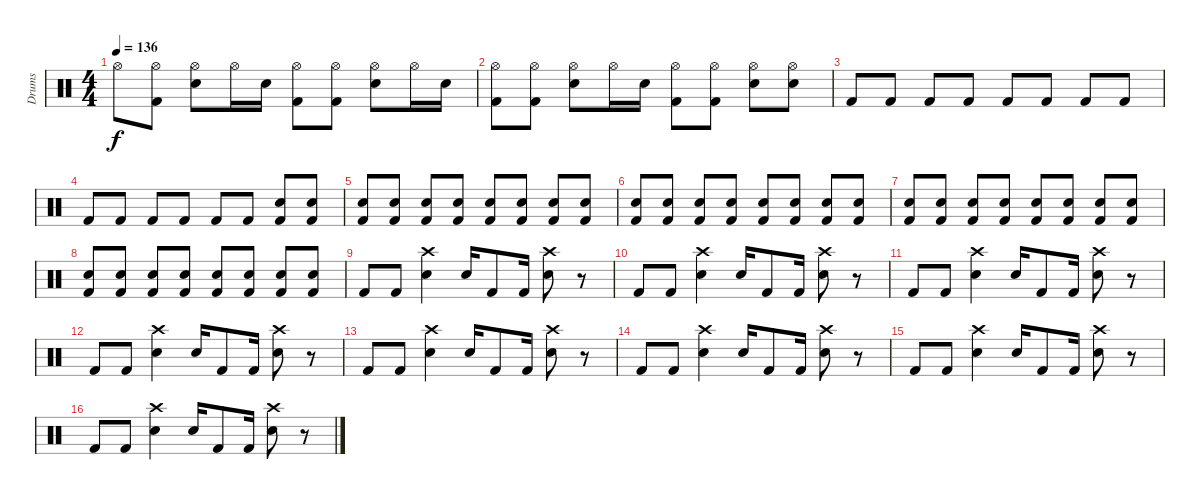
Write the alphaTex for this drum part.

\track ("Drums" "Drums") {instrument percussion}
\staff {score}
\articulation defaults
\ts (4 4)
\tempo 136
\clef neutral
\ks c "Hi-Hat (open)".8{dy f}
("Hi-Hat (open)" "Kick (hit) 2").8 ("Hi-Hat (open)" "Snare (hit) 2").8 "Hi-Hat (open)".16 "Snare (hit) 2".16 ("Hi-Hat (open)" "Kick (hit) 2").8 ("Hi-Hat (open)" "Kick (hit) 2").8 ("Hi-Hat (open)" "Snare (hit) 2").8 "Hi-Hat (open)".16 "Snare (hit) 2".16 |
("Hi-Hat (open)" "Kick (hit) 2").8 ("Hi-Hat (open)" "Kick (hit) 2").8 ("Hi-Hat (open)" "Snare (hit) 2").8 "Hi-Hat (open)".16 "Snare (hit) 2".16 ("Hi-Hat (open)" "Kick (hit) 2").8 ("Hi-Hat (open)" "Kick (hit) 2").8 ("Hi-Hat (open)" "Snare (hit) 2").8 ("Hi-Hat (open)" "Snare (hit) 2").8 |
"Kick (hit) 2".8{volume 7} "Kick (hit) 2".8 "Kick (hit) 2".8 "Kick (hit) 2".8 "Kick (hit) 2".8 "Kick (hit) 2".8 "Kick (hit) 2".8 "Kick (hit) 2".8 |
"Kick (hit) 2".8{volume 7} "Kick (hit) 2".8 "Kick (hit) 2".8 "Kick (hit) 2".8 "Kick (hit) 2".8 "Kick (hit) 2".8 ("Snare (hit) 2" "Kick (hit) 2").8 ("Snare (hit) 2" "Kick (hit) 2").8 |
("Snare (hit) 2" "Kick (hit) 2").8{volume 13} ("Snare (hit) 2" "Kick (hit) 2").8 ("Snare (hit) 2" "Kick (hit) 2").8 ("Snare (hit) 2" "Kick (hit) 2").8 ("Snare (hit) 2" "Kick (hit) 2").8 ("Snare (hit) 2" "Kick (hit) 2").8 ("Snare (hit) 2" "Kick (hit) 2").8 ("Snare (hit) 2" "Kick (hit) 2").8 |
("Snare (hit) 2" "Kick (hit) 2").8{volume 13} ("Snare (hit) 2" "Kick (hit) 2").8 ("Snare (hit) 2" "Kick (hit) 2").8 ("Snare (hit) 2" "Kick (hit) 2").8 ("Snare (hit) 2" "Kick (hit) 2").8 ("Snare (hit) 2" "Kick (hit) 2").8 ("Snare (hit) 2" "Kick (hit) 2").8 ("Snare (hit) 2" "Kick (hit) 2").8 |
("Snare (hit) 2" "Kick (hit) 2").8{volume 16} ("Snare (hit) 2" "Kick (hit) 2").8 ("Snare (hit) 2" "Kick (hit) 2").8 ("Snare (hit) 2" "Kick (hit) 2").8 ("Snare (hit) 2" "Kick (hit) 2").8 ("Snare (hit) 2" "Kick (hit) 2").8 ("Snare (hit) 2" "Kick (hit) 2").8 ("Snare (hit) 2" "Kick (hit) 2").8 |
("Snare (hit) 2" "Kick (hit) 2").8{volume 16} ("Snare (hit) 2" "Kick (hit) 2").8 ("Snare (hit) 2" "Kick (hit) 2").8 ("Snare (hit) 2" "Kick (hit) 2").8 ("Snare (hit) 2" "Kick (hit) 2").8 ("Snare (hit) 2" "Kick (hit) 2").8 ("Snare (hit) 2" "Kick (hit) 2").8 ("Snare (hit) 2" "Kick (hit) 2").8 |
"Kick (hit) 2".8 "Kick (hit) 2".8 ("Crash high (hit)" "Snare (hit) 2").4 "Snare (hit) 2".16 "Kick (hit) 2".8 "Kick (hit) 2".16 ("Crash high (hit)" "Snare (hit) 2").8 r.8 |
"Kick (hit) 2".8 "Kick (hit) 2".8 ("Crash high (hit)" "Snare (hit) 2").4 "Snare (hit) 2".16 "Kick (hit) 2".8 "Kick (hit) 2".16 ("Crash high (hit)" "Snare (hit) 2").8 r.8 |
"Kick (hit) 2".8 "Kick (hit) 2".8 ("Crash high (hit)" "Snare (hit) 2").4 "Snare (hit) 2".16 "Kick (hit) 2".8 "Kick (hit) 2".16 ("Crash high (hit)" "Snare (hit) 2").8 r.8 |
"Kick (hit) 2".8 "Kick (hit) 2".8 ("Crash high (hit)" "Snare (hit) 2").4 "Snare (hit) 2".16 "Kick (hit) 2".8 "Kick (hit) 2".16 ("Crash high (hit)" "Snare (hit) 2").8 r.8 |
"Kick (hit) 2".8 "Kick (hit) 2".8 ("Crash high (hit)" "Snare (hit) 2").4 "Snare (hit) 2".16 "Kick (hit) 2".8 "Kick (hit) 2".16 ("Crash high (hit)" "Snare (hit) 2").8 r.8 |
"Kick (hit) 2".8 "Kick (hit) 2".8 ("Crash high (hit)" "Snare (hit) 2").4 "Snare (hit) 2".16 "Kick (hit) 2".8 "Kick (hit) 2".16 ("Crash high (hit)" "Snare (hit) 2").8 r.8 |
"Kick (hit) 2".8 "Kick (hit) 2".8 ("Crash high (hit)" "Snare (hit) 2").4 "Snare (hit) 2".16 "Kick (hit) 2".8 "Kick (hit) 2".16 ("Crash high (hit)" "Snare (hit) 2").8 r.8 |
"Kick (hit) 2".8 "Kick (hit) 2".8 ("Crash high (hit)" "Snare (hit) 2").4 "Snare (hit) 2".16 "Kick (hit) 2".8 "Kick (hit) 2".16 ("Crash high (hit)" "Snare (hit) 2").8 r.8
